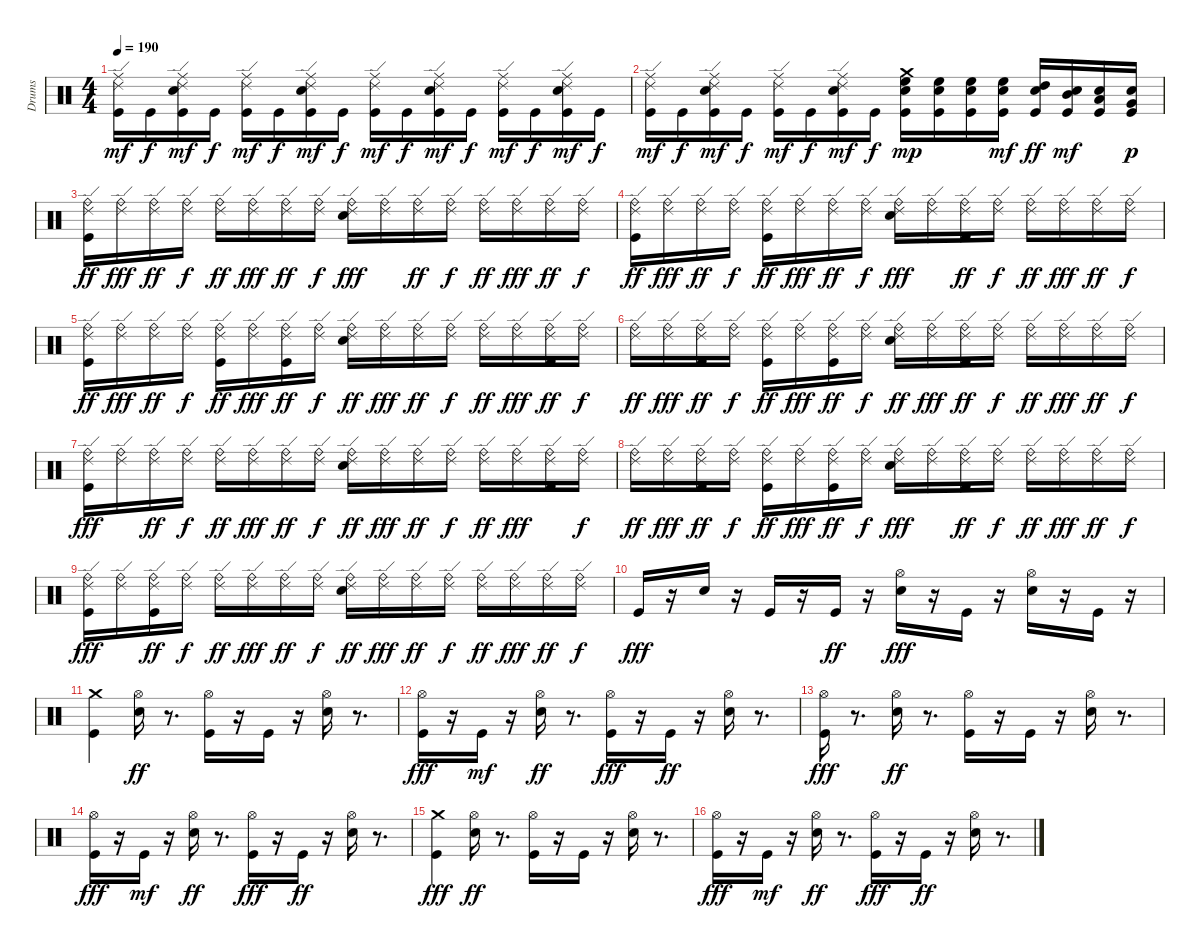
\track ("Drums" "Drums") {instrument percussion}
\staff {score}
\articulation defaults
\ts (4 4)
\tempo 190
\clef neutral
\ks c
("Ride (middle)" "Ride (edge) 2" "Kick (hit)").16{dy mf} "Kick (hit)".16{dy f} ("Electric Snare (hit)" "Kick (hit)" "Ride (edge) 2" "Ride (middle)").16{dy mf} "Kick (hit)".16{dy f} ("Kick (hit)" "Ride (edge) 2" "Ride (middle)").16{dy mf} "Kick (hit)".16{dy f} ("Electric Snare (hit)" "Kick (hit)" "Ride (edge) 2" "Ride (middle)").16{dy mf} "Kick (hit)".16{dy f} ("Kick (hit)" "Ride (edge) 2" "Ride (middle)").16{dy mf} "Kick (hit)".16{dy f} ("Electric Snare (hit)" "Kick (hit)" "Ride (edge) 2" "Ride (middle)").16{dy mf} "Kick (hit)".16{dy f} ("Kick (hit)" "Ride (edge) 2" "Ride (middle)").16{dy mf} "Kick (hit)".16{dy f} ("Electric Snare (hit)" "Kick (hit)" "Ride (edge) 2" "Ride (middle)").16{dy mf} "Kick (hit)".16{dy f} |
("Ride (middle)" "Ride (edge) 2" "Kick (hit)").16{dy mf} "Kick (hit)".16{dy f} ("Electric Snare (hit)" "Kick (hit)" "Ride (edge) 2" "Ride (middle)").16{dy mf} "Kick (hit)".16{dy f} ("Kick (hit)" "Ride (edge) 2" "Ride (middle)").16{dy mf} "Kick (hit)".16{dy f} ("Electric Snare (hit)" "Kick (hit)" "Ride (edge) 2" "Ride (middle)").16{dy mf} "Kick (hit)".16{dy f} ("High Floor Tom (hit)" "Kick (hit)" "Crash medium (hit)" "Electric Snare (hit)").16{dy mp} ("Kick (hit)" "High Floor Tom (hit)" "Electric Snare (hit)").16 ("High Floor Tom (hit)" "Kick (hit)" "Electric Snare (hit)").16 ("Kick (hit)" "High Floor Tom (hit)" "Electric Snare (hit)").16{dy mf} ("High Tom (hit)" "Kick (hit)" "Electric Snare (hit)").16{dy ff} ("Kick (hit)" "Mid Tom (hit)" "Electric Snare (hit)").16{dy mf} ("Kick (hit)" "Electric Snare (hit)" "Low Tom (hit)").16 ("Electric Snare (hit)" "Kick (hit)" "Very Low Tom (hit)").16{dy p} |
("Kick (hit)" "Ride (edge) 2" "Ride (bell)").16{dy ff} ("Ride (bell)" "Ride (edge) 2").16{dy fff} ("Ride (bell)" "Ride (edge) 2").16{dy ff} ("Ride (edge) 2" "Ride (bell)").16{dy f} ("Ride (bell)" "Ride (edge) 2").16{dy ff} ("Ride (edge) 2" "Ride (bell)").16{dy fff} ("Ride (edge) 2" "Ride (bell)").16{dy ff} ("Ride (bell)" "Ride (edge) 2").16{dy f} ("Ride (edge) 2" "Ride (bell)" "Electric Snare (hit)").16{dy fff} ("Ride (bell)" "Ride (edge) 2").16 ("Ride (bell)" "Ride (edge) 2").16{dy ff} ("Ride (edge) 2" "Ride (bell)").16{dy f} ("Ride (edge) 2" "Ride (bell)").16{dy ff} ("Ride (edge) 2" "Ride (bell)").16{dy fff} ("Ride (edge) 2" "Ride (bell)").16{dy ff} ("Ride (bell)" "Ride (edge) 2").16{dy f} |
("Kick (hit)" "Ride (edge) 2" "Ride (bell)").16{dy ff} ("Ride (bell)" "Ride (edge) 2").16{dy fff} ("Ride (bell)" "Ride (edge) 2").16{dy ff} ("Ride (edge) 2" "Ride (bell)").16{dy f} ("Ride (bell)" "Kick (hit)" "Ride (edge) 2").16{dy ff} ("Ride (bell)" "Ride (edge) 2").16{dy fff} ("Ride (edge) 2" "Ride (bell)").16{dy ff} ("Ride (bell)" "Ride (edge) 2").16{dy f} ("Ride (edge) 2" "Ride (bell)" "Electric Snare (hit)").16{dy fff} ("Ride (edge) 2" "Ride (bell)").16 ("Kick (hit)" "Ride (bell)" "Ride (edge) 2").16{dy ff} ("Ride (edge) 2" "Ride (bell)").16{dy f} ("Ride (edge) 2" "Ride (bell)").16{dy ff} ("Ride (bell)" "Ride (edge) 2").16{dy fff} ("Ride (edge) 2" "Ride (bell)").16{dy ff} ("Ride (bell)" "Ride (edge) 2").16{dy f} |
("Kick (hit)" "Ride (bell)" "Ride (edge) 2").16{dy ff} ("Ride (bell)" "Ride (edge) 2").16{dy fff} ("Ride (bell)" "Ride (edge) 2").16{dy ff} ("Ride (edge) 2" "Ride (bell)").16{dy f} ("Ride (bell)" "Kick (hit)" "Ride (edge) 2").16{dy ff} ("Ride (edge) 2" "Ride (bell)").16{dy fff} ("Ride (edge) 2" "Kick (hit)" "Ride (bell)").16{dy ff} ("Ride (bell)" "Ride (edge) 2").16{dy f} ("Electric Snare (hit)" "Ride (bell)" "Ride (edge) 2").16{dy ff} ("Ride (bell)" "Ride (edge) 2").16{dy fff} ("Ride (bell)" "Ride (edge) 2").16{dy ff} ("Ride (edge) 2" "Ride (bell)").16{dy f} ("Ride (edge) 2" "Ride (bell)").16{dy ff} ("Ride (bell)" "Ride (edge) 2").16{dy fff} ("Ride (edge) 2" "Ride (bell)" "Kick (hit)").16{dy ff} ("Ride (bell)" "Ride (edge) 2").16{dy f} |
("Ride (bell)" "Ride (edge) 2").16{dy ff} ("Ride (edge) 2" "Ride (bell)").16{dy fff} ("Ride (bell)" "Ride (edge) 2" "Kick (hit)").16{dy ff} ("Ride (bell)" "Ride (edge) 2").16{dy f} ("Ride (bell)" "Ride (edge) 2" "Kick (hit)").16{dy ff} ("Ride (bell)" "Ride (edge) 2").16{dy fff} ("Ride (edge) 2" "Ride (bell)" "Kick (hit)").16{dy ff} ("Ride (edge) 2" "Ride (bell)").16{dy f} ("Ride (bell)" "Electric Snare (hit)" "Ride (edge) 2").16{dy ff} ("Ride (bell)" "Ride (edge) 2").16{dy fff} ("Ride (edge) 2" "Ride (bell)" "Kick (hit)").16{dy ff} ("Ride (bell)" "Ride (edge) 2").16{dy f} ("Ride (bell)" "Ride (edge) 2").16{dy ff} ("Ride (edge) 2" "Ride (bell)").16{dy fff} ("Ride (edge) 2" "Ride (bell)").16{dy ff} ("Ride (edge) 2" "Ride (bell)").16{dy f} |
("Ride (edge) 2" "Ride (bell)" "Kick (hit)").16{dy fff} ("Ride (edge) 2" "Ride (bell)").16 ("Ride (edge) 2" "Ride (bell)").16{dy ff} ("Ride (bell)" "Ride (edge) 2").16{dy f} ("Ride (bell)" "Ride (edge) 2").16{dy ff} ("Ride (edge) 2" "Ride (bell)").16{dy fff} ("Ride (edge) 2" "Ride (bell)").16{dy ff} ("Ride (bell)" "Ride (edge) 2").16{dy f} ("Ride (bell)" "Electric Snare (hit)" "Ride (edge) 2").16{dy ff} ("Ride (edge) 2" "Ride (bell)").16{dy fff} ("Ride (edge) 2" "Ride (bell)").16{dy ff} ("Ride (bell)" "Ride (edge) 2").16{dy f} ("Ride (bell)" "Ride (edge) 2").16{dy ff} ("Ride (edge) 2" "Ride (bell)").16{dy fff} ("Ride (edge) 2" "Ride (bell)" "Kick (hit)").16 ("Ride (edge) 2" "Ride (bell)").16{dy f} |
("Ride (edge) 2" "Ride (bell)").16{dy ff} ("Ride (edge) 2" "Ride (bell)").16{dy fff} ("Ride (bell)" "Ride (edge) 2" "Kick (hit)").16{dy ff} ("Ride (bell)" "Ride (edge) 2").16{dy f} ("Ride (edge) 2" "Ride (bell)" "Kick (hit)").16{dy ff} ("Ride (edge) 2" "Ride (bell)").16{dy fff} ("Ride (edge) 2" "Ride (bell)" "Kick (hit)").16{dy ff} ("Ride (edge) 2" "Ride (bell)").16{dy f} ("Ride (bell)" "Ride (edge) 2" "Electric Snare (hit)").16{dy fff} ("Ride (edge) 2" "Ride (bell)").16 ("Kick (hit)" "Ride (edge) 2" "Ride (bell)").16{dy ff} ("Ride (bell)" "Ride (edge) 2").16{dy f} ("Ride (bell)" "Ride (edge) 2").16{dy ff} ("Ride (edge) 2" "Ride (bell)").16{dy fff} ("Ride (edge) 2" "Ride (bell)").16{dy ff} ("Ride (bell)" "Ride (edge) 2").16{dy f} |
("Ride (bell)" "Ride (edge) 2" "Kick (hit)").16{dy fff} ("Ride (edge) 2" "Ride (bell)").16 ("Ride (bell)" "Ride (edge) 2" "Kick (hit)").16{dy ff} ("Ride (bell)" "Ride (edge) 2").16{dy f} ("Ride (edge) 2" "Ride (bell)").16{dy ff} ("Ride (bell)" "Ride (edge) 2").16{dy fff} ("Ride (bell)" "Ride (edge) 2").16{dy ff} ("Ride (edge) 2" "Ride (bell)").16{dy f} ("Ride (bell)" "Electric Snare (hit)" "Ride (edge) 2").16{dy ff} ("Ride (bell)" "Ride (edge) 2").16{dy fff} ("Ride (edge) 2" "Ride (bell)").16{dy ff} ("Ride (bell)" "Ride (edge) 2").16{dy f} ("Ride (bell)" "Ride (edge) 2").16{dy ff} ("Ride (bell)" "Ride (edge) 2").16{dy fff} ("Ride (bell)" "Ride (edge) 2").16{dy ff} ("Ride (edge) 2" "Ride (bell)").16{dy f} |
"Kick (hit)".16{dy fff} r.16 "Electric Snare (hit)".16 r.16 "Kick (hit)".16 r.16 "Kick (hit)".16{dy ff} r.16 ("Hi-Hat (open)" "Electric Snare (hit)").16{dy fff} r.16 "Kick (hit)".16 r.16 ("Hi-Hat (open)" "Electric Snare (hit)").16 r.16 "Kick (hit)".16 r.16 |
("Crash medium (hit)" "Kick (hit)").4 ("Hi-Hat (open)" "Electric Snare (hit)").16{dy ff} r.8{d} ("Hi-Hat (open)" "Kick (hit)").16 r.16 "Kick (hit)".16 r.16 ("Hi-Hat (open)" "Electric Snare (hit)").16 r.8{d} |
("Kick (hit)" "Hi-Hat (open)").16{dy fff} r.16 "Kick (hit)".16{dy mf} r.16 ("Electric Snare (hit)" "Hi-Hat (open)").16{dy ff} r.8{d} ("Kick (hit)" "Hi-Hat (open)").16{dy fff} r.16 "Kick (hit)".16{dy ff} r.16 ("Hi-Hat (open)" "Electric Snare (hit)").16 r.8{d} |
("Hi-Hat (open)" "Kick (hit)").16{dy fff} r.8{d} ("Hi-Hat (open)" "Electric Snare (hit)").16{dy ff} r.8{d} ("Hi-Hat (open)" "Kick (hit)").16 r.16 "Kick (hit)".16 r.16 ("Hi-Hat (open)" "Electric Snare (hit)").16 r.8{d} |
("Kick (hit)" "Hi-Hat (open)").16{dy fff} r.16 "Kick (hit)".16{dy mf} r.16 ("Electric Snare (hit)" "Hi-Hat (open)").16{dy ff} r.8{d} ("Kick (hit)" "Hi-Hat (open)").16{dy fff} r.16 "Kick (hit)".16{dy ff} r.16 ("Hi-Hat (open)" "Electric Snare (hit)").16 r.8{d} |
("Crash medium (hit)" "Kick (hit)").4{dy fff} ("Hi-Hat (open)" "Electric Snare (hit)").16{dy ff} r.8{d} ("Hi-Hat (open)" "Kick (hit)").16 r.16 "Kick (hit)".16 r.16 ("Hi-Hat (open)" "Electric Snare (hit)").16 r.8{d} |
("Kick (hit)" "Hi-Hat (open)").16{dy fff} r.16 "Kick (hit)".16{dy mf} r.16 ("Electric Snare (hit)" "Hi-Hat (open)").16{dy ff} r.8{d} ("Kick (hit)" "Hi-Hat (open)").16{dy fff} r.16 "Kick (hit)".16{dy ff} r.16 ("Hi-Hat (open)" "Electric Snare (hit)").16 r.8{d}
